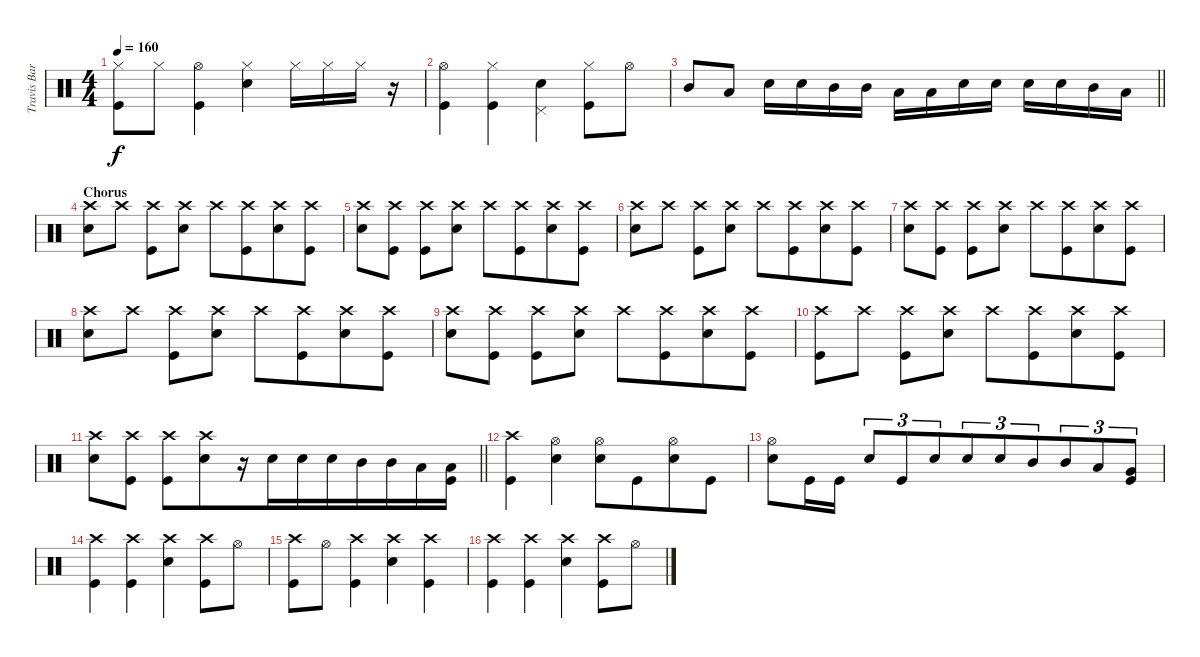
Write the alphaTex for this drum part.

\track ("Travis Barker Drums" "Travis Bar") {instrument percussion}
\staff {score}
\articulation defaults
\ts (4 4)
\tempo 160
\clef neutral
\ks c
("Hi-Hat (closed)" "Kick (hit)").8{dy f beam merge} "Hi-Hat (closed)".8{beam merge} ("Hi-Hat (open)" "Kick (hit)").4 ("Snare (hit) 2" "Hi-Hat (closed)").4{beam merge} "Hi-Hat (closed)".16 "Hi-Hat (closed)".16 "Hi-Hat (closed)".16 r.16 |
("Kick (hit)" "Hi-Hat (open)").4 ("Hi-Hat (closed)" "Kick (hit)").4{beam merge} ("Pedal Hi-Hat (hit)" "Snare (hit) 2").4{beam merge} ("Kick (hit)" "Hi-Hat (closed)").8 "Hi-Hat (open)".8 |
\barLineRight lightlight "Mid Tom (hit)".8 "Low Tom (hit)".8 "Snare (hit) 2".16{beam merge} "Snare (hit) 2".16 "Mid Tom (hit)".16{beam merge} "Mid Tom (hit)".16 "Low Tom (hit)".16 "Low Tom (hit)".16{beam merge} "Snare (hit) 2".16 "Snare (hit) 2".16 "Snare (hit) 2".16 "Snare (hit) 2".16 "Mid Tom (hit)".16 "Low Tom (hit)".16
|
\section ("" "Chorus")
("Snare (hit) 2" "Crash high (hit)").8{beam merge} "Crash high (hit)".8 ("Kick (hit)" "Crash high (hit)").8 ("Snare (hit) 2" "Crash high (hit)").8 "Crash high (hit)".8{beam merge} ("Kick (hit)" "Crash high (hit)").8{beam merge} ("Snare (hit) 2" "Crash high (hit)").8{beam merge} ("Kick (hit)" "Crash high (hit)").8 |
("Snare (hit) 2" "Crash high (hit)").8{beam merge} ("Kick (hit)" "Crash high (hit)").8 ("Kick (hit)" "Crash high (hit)").8 ("Snare (hit) 2" "Crash high (hit)").8 "Crash high (hit)".8{beam merge} ("Kick (hit)" "Crash high (hit)").8{beam merge} ("Snare (hit) 2" "Crash high (hit)").8{beam merge} ("Kick (hit)" "Crash high (hit)").8 |
("Snare (hit) 2" "Crash high (hit)").8{beam merge} "Crash high (hit)".8 ("Kick (hit)" "Crash high (hit)").8 ("Snare (hit) 2" "Crash high (hit)").8 "Crash high (hit)".8{beam merge} ("Kick (hit)" "Crash high (hit)").8{beam merge} ("Snare (hit) 2" "Crash high (hit)").8{beam merge} ("Kick (hit)" "Crash high (hit)").8 |
("Snare (hit) 2" "Crash high (hit)").8{beam merge} ("Kick (hit)" "Crash high (hit)").8 ("Kick (hit)" "Crash high (hit)").8 ("Snare (hit) 2" "Crash high (hit)").8 "Crash high (hit)".8{beam merge} ("Kick (hit)" "Crash high (hit)").8{beam merge} ("Snare (hit) 2" "Crash high (hit)").8{beam merge} ("Kick (hit)" "Crash high (hit)").8 |
("Snare (hit) 2" "Crash high (hit)").8{beam merge} "Crash high (hit)".8 ("Kick (hit)" "Crash high (hit)").8 ("Snare (hit) 2" "Crash high (hit)").8 "Crash high (hit)".8{beam merge} ("Kick (hit)" "Crash high (hit)").8{beam merge} ("Snare (hit) 2" "Crash high (hit)").8{beam merge} ("Kick (hit)" "Crash high (hit)").8 |
("Snare (hit) 2" "Crash high (hit)").8{beam merge} ("Kick (hit)" "Crash high (hit)").8 ("Kick (hit)" "Crash high (hit)").8 ("Snare (hit) 2" "Crash high (hit)").8 "Crash high (hit)".8{beam merge} ("Kick (hit)" "Crash high (hit)").8{beam merge} ("Snare (hit) 2" "Crash high (hit)").8{beam merge} ("Kick (hit)" "Crash high (hit)").8 |
("Kick (hit)" "Crash high (hit)").8{beam merge} "Crash high (hit)".8 ("Kick (hit)" "Crash high (hit)").8 ("Snare (hit) 2" "Crash high (hit)").8 "Crash high (hit)".8{beam merge} ("Kick (hit)" "Crash high (hit)").8{beam merge} ("Snare (hit) 2" "Crash high (hit)").8{beam merge} ("Kick (hit)" "Crash high (hit)").8 |
\barLineRight lightlight
("Snare (hit) 2" "Crash high (hit)").8{beam merge} ("Kick (hit)" "Crash high (hit)").8 ("Kick (hit)" "Crash high (hit)").8 ("Snare (hit) 2" "Crash high (hit)").8{beam merge} r.16 "Snare (hit) 2".16{beam merge} "Snare (hit) 2".16{beam merge} "Snare (hit) 2".16{beam merge} "Mid Tom (hit)".16{beam merge} "Mid Tom (hit)".16{beam merge} "Low Tom (hit)".16 ("Kick (hit)" "Low Tom (hit)").16 |
("Crash high (hit)" "Kick (hit)").4 ("Hi-Hat (open)" "Snare (hit) 2").4{beam merge} ("Hi-Hat (open)" "Snare (hit) 2").8{beam merge} "Kick (hit)".8{beam merge} ("Hi-Hat (open)" "Snare (hit) 2").8{beam merge} "Kick (hit)".8 |
("Hi-Hat (open)" "Snare (hit) 2").8{beam merge} "Kick (hit)".16 "Kick (hit)".16 "Snare (hit) 2".8{tu (3 2)} "Kick (hit)".8{tu (3 2) beam merge} "Snare (hit) 2".8{tu (3 2) beam merge} "Snare (hit) 2".8{tu (3 2)} "Snare (hit) 2".8{tu (3 2)} "Mid Tom (hit)".8{tu (3 2) beam merge} "Mid Tom (hit)".8{tu (3 2)} "Low Tom (hit)".8{tu (3 2)} ("Very Low Tom (hit)" "Kick (hit)").8{tu (3 2)} |
("Kick (hit)" "Crash high (hit)").4 ("Kick (hit)" "Crash high (hit)").4 ("Crash high (hit)" "Snare (hit) 2").4{beam merge} ("Kick (hit)" "Crash high (hit)").8{beam merge} "Hi-Hat (open)".8 |
("Kick (hit)" "Crash high (hit)").8 "Hi-Hat (open)".8{beam merge} ("Kick (hit)" "Crash high (hit)").4{beam merge} ("Crash high (hit)" "Snare (hit) 2").4 ("Kick (hit)" "Crash high (hit)").4 |
("Kick (hit)" "Crash high (hit)").4 ("Kick (hit)" "Crash high (hit)").4 ("Crash high (hit)" "Snare (hit) 2").4{beam merge} ("Kick (hit)" "Crash high (hit)").8{beam merge} "Hi-Hat (open)".8
